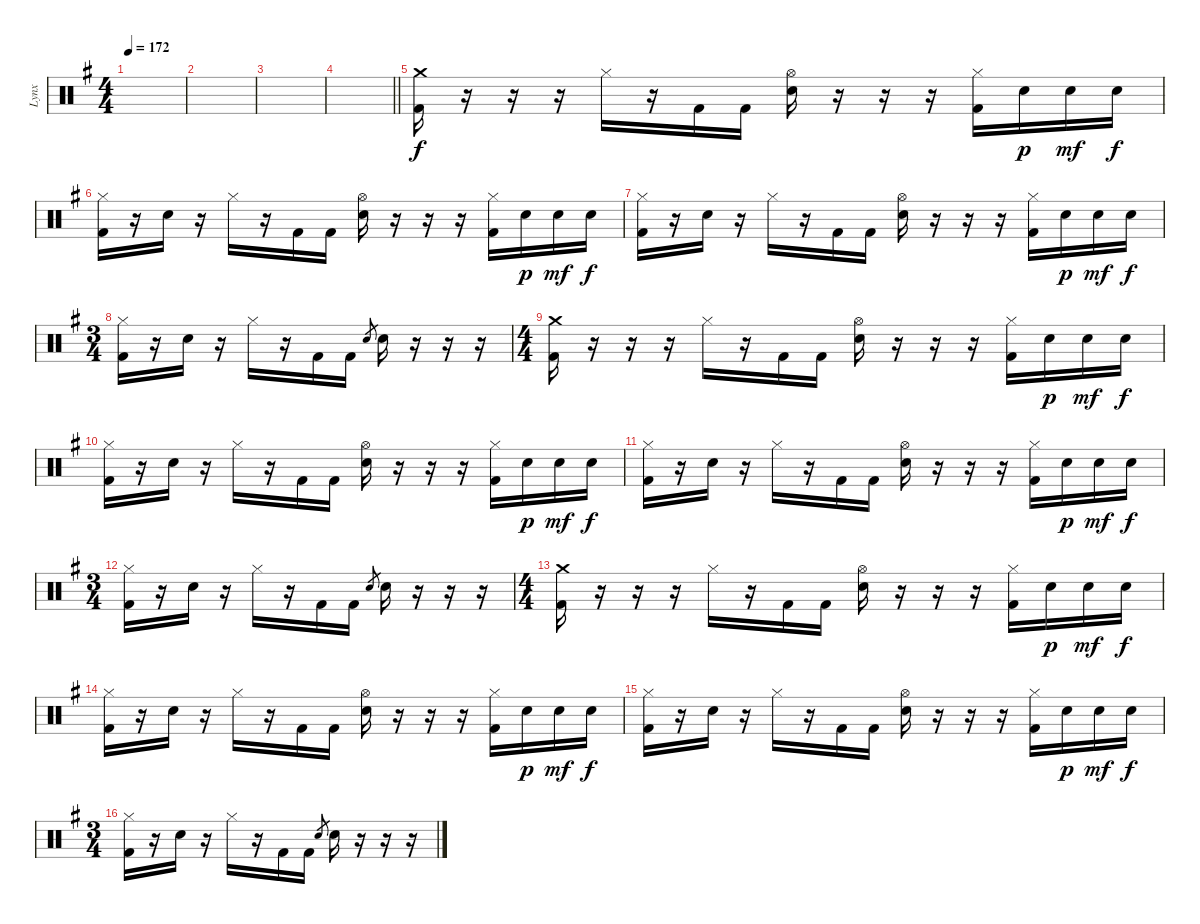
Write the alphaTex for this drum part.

\track ("Lynx" "Lynx") {instrument percussion}
\staff {score}
\articulation defaults
\ts (4 4)
\tempo 172
\clef neutral
\ks g
|
|
|
\barLineRight lightlight
|
\section ("" "")
("Crash medium (hit)" "Kick (hit) 2").16{dy f} r.16 r.16 r.16 "Hi-Hat (closed)".16 r.16 "Kick (hit) 2".16 "Kick (hit) 2".16 ("Hi-Hat (open)" "Electric Snare (hit)").16 r.16 r.16 r.16 ("Hi-Hat (closed)" "Kick (hit) 2").16 "Electric Snare (hit)".16{dy p} "Electric Snare (hit)".16{dy mf} "Electric Snare (hit)".16{dy f} |
("Hi-Hat (closed)" "Kick (hit) 2").16 r.16 "Electric Snare (hit)".16 r.16 "Hi-Hat (closed)".16 r.16 "Kick (hit) 2".16 "Kick (hit) 2".16 ("Hi-Hat (open)" "Electric Snare (hit)").16 r.16 r.16 r.16 ("Hi-Hat (closed)" "Kick (hit) 2").16 "Electric Snare (hit)".16{dy p} "Electric Snare (hit)".16{dy mf} "Electric Snare (hit)".16{dy f} |
("Hi-Hat (closed)" "Kick (hit) 2").16 r.16 "Electric Snare (hit)".16 r.16 "Hi-Hat (closed)".16 r.16 "Kick (hit) 2".16 "Kick (hit) 2".16 ("Hi-Hat (open)" "Electric Snare (hit)").16 r.16 r.16 r.16 ("Hi-Hat (closed)" "Kick (hit) 2").16 "Electric Snare (hit)".16{dy p} "Electric Snare (hit)".16{dy mf} "Electric Snare (hit)".16{dy f} |
\ts (3 4)
("Hi-Hat (closed)" "Kick (hit) 2").16 r.16 "Electric Snare (hit)".16 r.16 "Hi-Hat (closed)".16 r.16 "Kick (hit) 2".16 "Kick (hit) 2".16 "Electric Snare (hit)".8{gr} "Electric Snare (hit)".16 r.16 r.16 r.16 |
\ts (4 4)
("Crash medium (hit)" "Kick (hit) 2").16 r.16 r.16 r.16 "Hi-Hat (closed)".16 r.16 "Kick (hit) 2".16 "Kick (hit) 2".16 ("Hi-Hat (open)" "Electric Snare (hit)").16 r.16 r.16 r.16 ("Hi-Hat (closed)" "Kick (hit) 2").16 "Electric Snare (hit)".16{dy p} "Electric Snare (hit)".16{dy mf} "Electric Snare (hit)".16{dy f} |
("Hi-Hat (closed)" "Kick (hit) 2").16 r.16 "Electric Snare (hit)".16 r.16 "Hi-Hat (closed)".16 r.16 "Kick (hit) 2".16 "Kick (hit) 2".16 ("Hi-Hat (open)" "Electric Snare (hit)").16 r.16 r.16 r.16 ("Hi-Hat (closed)" "Kick (hit) 2").16 "Electric Snare (hit)".16{dy p} "Electric Snare (hit)".16{dy mf} "Electric Snare (hit)".16{dy f} |
("Hi-Hat (closed)" "Kick (hit) 2").16 r.16 "Electric Snare (hit)".16 r.16 "Hi-Hat (closed)".16 r.16 "Kick (hit) 2".16 "Kick (hit) 2".16 ("Hi-Hat (open)" "Electric Snare (hit)").16 r.16 r.16 r.16 ("Hi-Hat (closed)" "Kick (hit) 2").16 "Electric Snare (hit)".16{dy p} "Electric Snare (hit)".16{dy mf} "Electric Snare (hit)".16{dy f} |
\ts (3 4)
("Hi-Hat (closed)" "Kick (hit) 2").16 r.16 "Electric Snare (hit)".16 r.16 "Hi-Hat (closed)".16 r.16 "Kick (hit) 2".16 "Kick (hit) 2".16 "Electric Snare (hit)".8{gr} "Electric Snare (hit)".16 r.16 r.16 r.16 |
\ts (4 4)
("Crash medium (hit)" "Kick (hit) 2").16 r.16 r.16 r.16 "Hi-Hat (closed)".16 r.16 "Kick (hit) 2".16 "Kick (hit) 2".16 ("Hi-Hat (open)" "Electric Snare (hit)").16 r.16 r.16 r.16 ("Hi-Hat (closed)" "Kick (hit) 2").16 "Electric Snare (hit)".16{dy p} "Electric Snare (hit)".16{dy mf} "Electric Snare (hit)".16{dy f} |
("Hi-Hat (closed)" "Kick (hit) 2").16 r.16 "Electric Snare (hit)".16 r.16 "Hi-Hat (closed)".16 r.16 "Kick (hit) 2".16 "Kick (hit) 2".16 ("Hi-Hat (open)" "Electric Snare (hit)").16 r.16 r.16 r.16 ("Hi-Hat (closed)" "Kick (hit) 2").16 "Electric Snare (hit)".16{dy p} "Electric Snare (hit)".16{dy mf} "Electric Snare (hit)".16{dy f} |
("Hi-Hat (closed)" "Kick (hit) 2").16 r.16 "Electric Snare (hit)".16 r.16 "Hi-Hat (closed)".16 r.16 "Kick (hit) 2".16 "Kick (hit) 2".16 ("Hi-Hat (open)" "Electric Snare (hit)").16 r.16 r.16 r.16 ("Hi-Hat (closed)" "Kick (hit) 2").16 "Electric Snare (hit)".16{dy p} "Electric Snare (hit)".16{dy mf} "Electric Snare (hit)".16{dy f} |
\ts (3 4)
("Hi-Hat (closed)" "Kick (hit) 2").16 r.16 "Electric Snare (hit)".16 r.16 "Hi-Hat (closed)".16 r.16 "Kick (hit) 2".16 "Kick (hit) 2".16 "Electric Snare (hit)".8{gr} "Electric Snare (hit)".16 r.16 r.16 r.16
